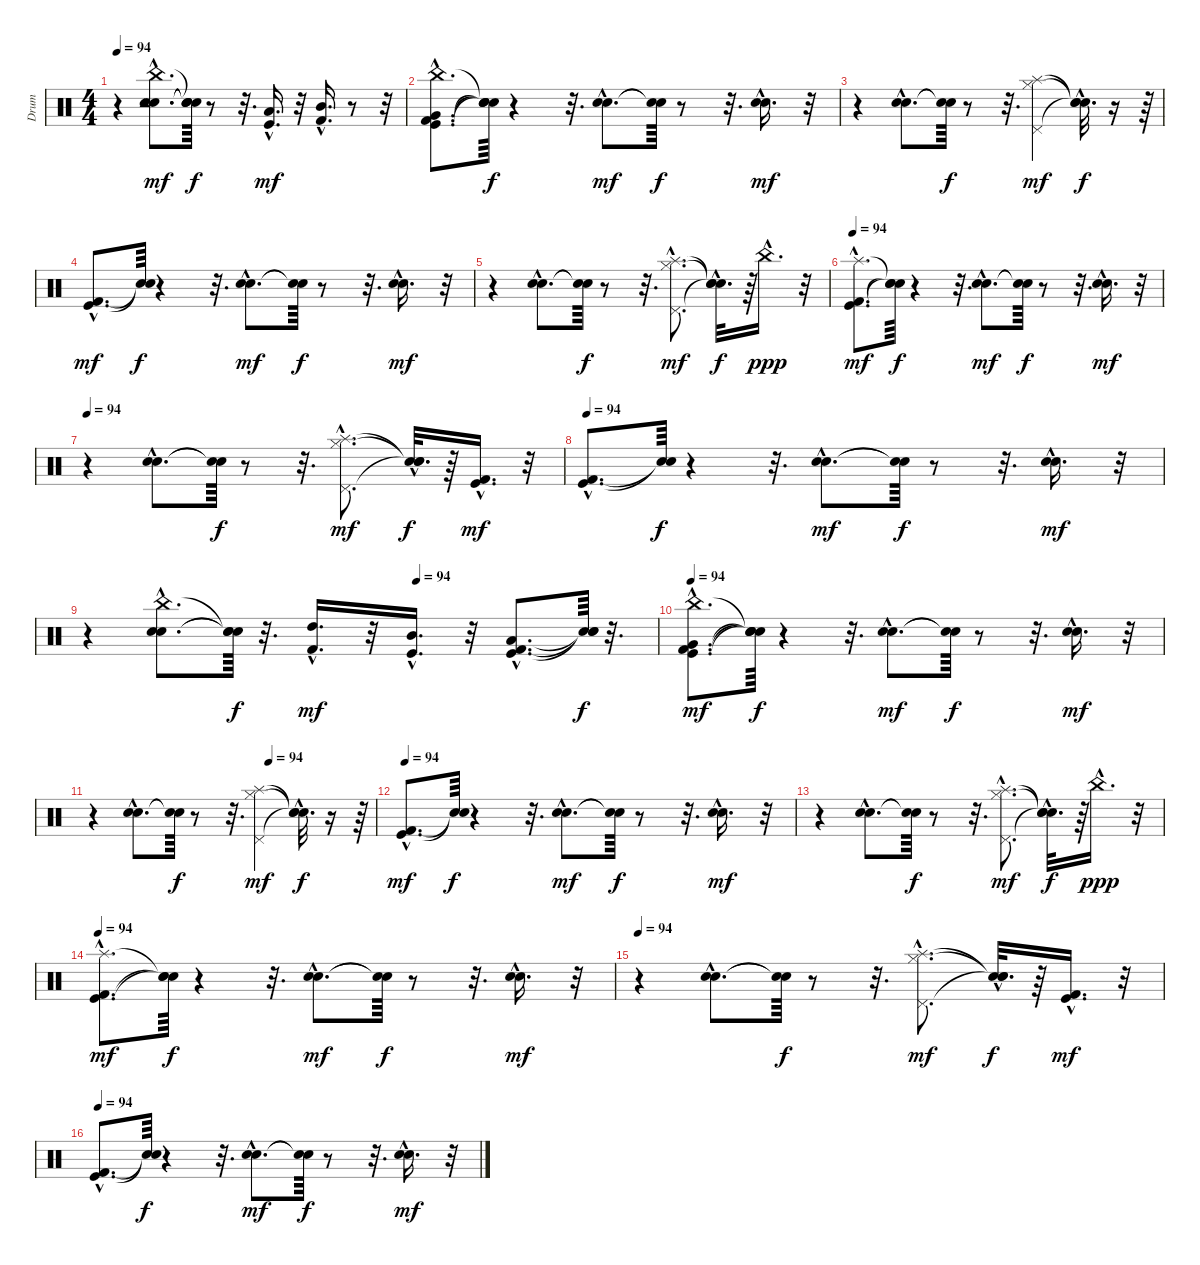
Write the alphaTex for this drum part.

\track ("Drum" "Drum") {instrument percussion}
\staff {score}
\articulation defaults
\ts (4 4)
\tempo 94
\clef neutral
\ks c
r.4{dy mf} ("Electric Snare (hit)"{hac} "China (hit)"{hac} "Snare (hit) 2"{hac} "Tambourine (hit)"{hac}).8{d} ("Snare (hit)"{t} "Snare (hit)"{t} "Snare (hit)"{t} "Snare (hit)"{t}).64{dy f} r.8 r.32{d} ("Kick (hit)"{hac} "Low Tom (hit)"{hac}).16{d dy mf} r.32 ("Kick (hit) 2"{hac} "Mid Tom (hit)"{hac}).16{d} r.8 r.32 |
("China (hit)"{hac} "Kick (hit) 2"{hac} "Very Low Tom (hit)"{hac} "Kick (hit)"{hac}).8{d} ("Snare (hit)"{t} "Snare (hit)"{t} "Snare (hit)"{t} "Snare (hit)"{t}).64{dy f} r.4 r.32{d} ("Electric Snare (hit)"{hac} "Snare (hit) 2"{hac}).8{d dy mf} ("Snare (hit)"{t} "Snare (hit)"{t}).64{dy f} r.8 r.32{d} ("Electric Snare (hit)"{hac} "Snare (hit) 2"{hac}).16{d dy mf} r.32 |
r.4 ("Electric Snare (hit)"{hac} "Snare (hit) 2"{hac}).8{d} ("Snare (hit)"{t} "Snare (hit)"{t}).64{dy f} r.8 r.32{d} ("Pedal Hi-Hat (hit)" "Splash (hit)" "Hi-Hat (closed)").4{dy mf} ("Snare (hit)"{hac t} "Snare (hit)"{hac t} "Snare (hit)"{hac t}).32{d dy f} r.16 r.64 |
("Kick (hit)"{hac} "Kick (hit) 2"{hac}).8{d dy mf} ("Snare (hit)"{t} "Snare (hit)"{t}).64{dy f} r.4 r.32{d} ("Electric Snare (hit)"{hac} "Snare (hit) 2"{hac}).8{d dy mf} ("Snare (hit)"{t} "Snare (hit)"{t}).64{dy f} r.8 r.32{d} ("Electric Snare (hit)"{hac} "Snare (hit) 2"{hac}).16{d dy mf} r.32 |
r.4 ("Electric Snare (hit)"{hac} "Snare (hit) 2"{hac}).8{d} ("Snare (hit)"{t} "Snare (hit)"{t}).64{dy f} r.8 r.32{d} ("Pedal Hi-Hat (hit)"{hac} "Hi-Hat (closed)"{hac} "Splash (hit)"{hac}).8{d dy mf} ("Snare (hit)"{hac t} "Snare (hit)"{hac t} "Snare (hit)"{hac t}).32{d dy f} r.64 "China (hit)"{hac}.16{d dy ppp} r.32 |
\tempo 94
("Kick (hit) 2"{hac} "Splash (hit)"{hac} "Kick (hit)"{hac}).8{d dy mf} ("Snare (hit)"{t} "Snare (hit)"{t} "Snare (hit)"{t}).64{dy f} r.4 r.32{d} ("Electric Snare (hit)"{hac} "Snare (hit) 2"{hac}).8{d dy mf} ("Snare (hit)"{t} "Snare (hit)"{t}).64{dy f} r.8 r.32{d} ("Electric Snare (hit)"{hac} "Snare (hit) 2"{hac}).16{d dy mf} r.32 |
\tempo 94
r.4 ("Electric Snare (hit)"{hac} "Snare (hit) 2"{hac}).8{d} ("Snare (hit)"{t} "Snare (hit)"{t}).64{dy f} r.8 r.32{d} ("Pedal Hi-Hat (hit)"{hac} "Hi-Hat (closed)"{hac} "Splash (hit)"{hac}).8{d dy mf} ("Snare (hit)"{hac t} "Snare (hit)"{hac t} "Snare (hit)"{hac t}).32{d dy f} r.64 ("Kick (hit) 2"{hac} "Kick (hit)"{hac}).16{d dy mf} r.32 |
\tempo 94
("Kick (hit) 2"{hac} "Kick (hit)"{hac}).8{d} ("Snare (hit)"{t} "Snare (hit)"{t}).64{dy f} r.4 r.32{d} ("Electric Snare (hit)"{hac} "Snare (hit) 2"{hac}).8{d dy mf} ("Snare (hit)"{t} "Snare (hit)"{t}).64{dy f} r.8 r.32{d} ("Electric Snare (hit)"{hac} "Snare (hit) 2"{hac}).16{d dy mf} r.32 |
\tempo (94 0.578125)
r.4 ("Electric Snare (hit)"{hac} "China (hit)"{hac} "Snare (hit) 2"{hac}).8{d} ("Snare (hit)"{t} "Snare (hit)"{t} "Snare (hit)"{t}).64{dy f} r.32{d} ("Kick (hit) 2"{hac} "High Tom (hit)"{hac}).16{d dy mf} r.32 ("Kick (hit)"{hac} "Mid Tom (hit)"{hac}).16{d} r.32 ("Kick (hit) 2"{hac} "Kick (hit)"{hac} "Low Tom (hit)"{hac}).8{d} ("Snare (hit)"{t} "Snare (hit)"{t} "Snare (hit)"{t}).64{dy f} r.32{d} |
\tempo 94
("Kick (hit) 2"{hac} "Kick (hit)"{hac} "Very Low Tom (hit)"{hac} "China (hit)"{hac}).8{d dy mf} ("Snare (hit)"{t} "Snare (hit)"{t} "Snare (hit)"{t} "Snare (hit)"{t}).64{dy f} r.4 r.32{d} ("Snare (hit) 2"{hac} "Electric Snare (hit)"{hac}).8{d dy mf} ("Snare (hit)"{t} "Snare (hit)"{t}).64{dy f} r.8 r.32{d} ("Electric Snare (hit)"{hac} "Snare (hit) 2"{hac}).16{d dy mf} r.32 |
\tempo (94 0.625)
r.4 ("Electric Snare (hit)"{hac} "Snare (hit) 2"{hac}).8{d} ("Snare (hit)"{t} "Snare (hit)"{t}).64{dy f} r.8 r.32{d} ("Pedal Hi-Hat (hit)" "Splash (hit)" "Hi-Hat (closed)").4{dy mf} ("Snare (hit)"{hac t} "Snare (hit)"{hac t} "Snare (hit)"{hac t}).32{d dy f} r.16 r.64 |
\tempo 94
("Kick (hit)"{hac} "Kick (hit) 2"{hac}).8{d dy mf} ("Snare (hit)"{t} "Snare (hit)"{t}).64{dy f} r.4 r.32{d} ("Electric Snare (hit)"{hac} "Snare (hit) 2"{hac}).8{d dy mf} ("Snare (hit)"{t} "Snare (hit)"{t}).64{dy f} r.8 r.32{d} ("Electric Snare (hit)"{hac} "Snare (hit) 2"{hac}).16{d dy mf} r.32 |
r.4 ("Electric Snare (hit)"{hac} "Snare (hit) 2"{hac}).8{d} ("Snare (hit)"{t} "Snare (hit)"{t}).64{dy f} r.8 r.32{d} ("Pedal Hi-Hat (hit)"{hac} "Hi-Hat (closed)"{hac} "Splash (hit)"{hac}).8{d dy mf} ("Snare (hit)"{hac t} "Snare (hit)"{hac t} "Snare (hit)"{hac t}).32{d dy f} r.64 "China (hit)"{hac}.16{d dy ppp} r.32 |
\tempo 94
("Kick (hit) 2"{hac} "Splash (hit)"{hac} "Kick (hit)"{hac}).8{d dy mf} ("Snare (hit)"{t} "Snare (hit)"{t} "Snare (hit)"{t}).64{dy f} r.4 r.32{d} ("Electric Snare (hit)"{hac} "Snare (hit) 2"{hac}).8{d dy mf} ("Snare (hit)"{t} "Snare (hit)"{t}).64{dy f} r.8 r.32{d} ("Electric Snare (hit)"{hac} "Snare (hit) 2"{hac}).16{d dy mf} r.32 |
\tempo 94
r.4 ("Electric Snare (hit)"{hac} "Snare (hit) 2"{hac}).8{d} ("Snare (hit)"{t} "Snare (hit)"{t}).64{dy f} r.8 r.32{d} ("Pedal Hi-Hat (hit)"{hac} "Splash (hit)"{hac} "Hi-Hat (closed)"{hac}).8{d dy mf} ("Snare (hit)"{hac t} "Snare (hit)"{hac t} "Snare (hit)"{hac t}).32{d dy f} r.64 ("Kick (hit) 2"{hac} "Kick (hit)"{hac}).16{d dy mf} r.32 |
\tempo 94
("Kick (hit) 2"{hac} "Kick (hit)"{hac}).8{d} ("Snare (hit)"{t} "Snare (hit)"{t}).64{dy f} r.4 r.32{d} ("Electric Snare (hit)"{hac} "Snare (hit) 2"{hac}).8{d dy mf} ("Snare (hit)"{t} "Snare (hit)"{t}).64{dy f} r.8 r.32{d} ("Electric Snare (hit)"{hac} "Snare (hit) 2"{hac}).16{d dy mf} r.32
